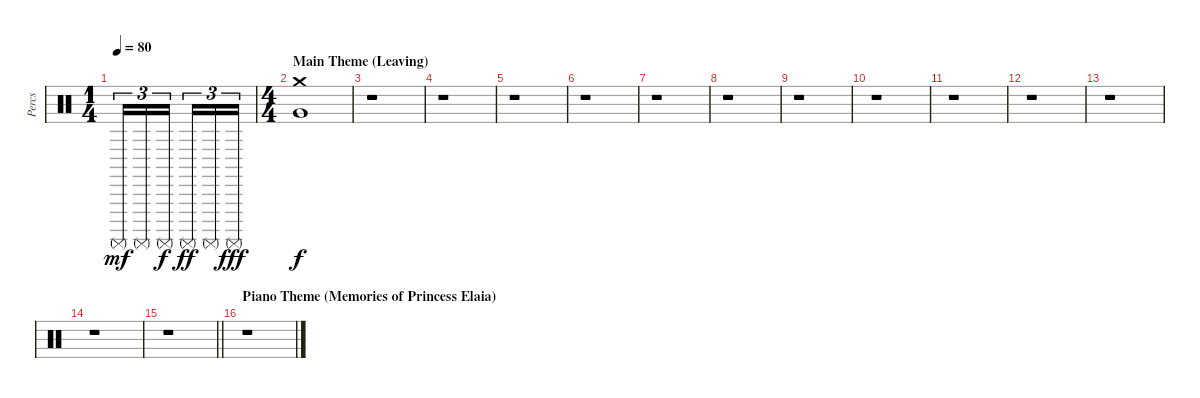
\track ("Percs" "Percs") {instrument percussion}
\staff {score}
\articulation defaults
\ts (1 4)
\tempo 80
\clef neutral
\ks c "Surdo (mute)".16{tu (3 2) dy mf} "Surdo (mute)".16{tu (3 2)} "Surdo (mute)".16{tu (3 2) dy f} "Surdo (mute)".16{tu (3 2) dy ff} "Surdo (mute)".16{tu (3 2)} "Surdo (mute)".16{tu (3 2) dy fff}
|
\ts (4 4)
\section ("" "Main Theme (Leaving)")
("Crash medium (hit)" "Very Low Tom (hit)").1{dy f} |
r.1 |
r.1 |
r.1 |
r.1 |
r.1 |
r.1 |
r.1 |
r.1 |
r.1 |
r.1 |
r.1 |
r.1 |
\barLineRight lightlight
r.1 |
\section ("" "Piano Theme (Memories of Princess Elaia)")
r.1
